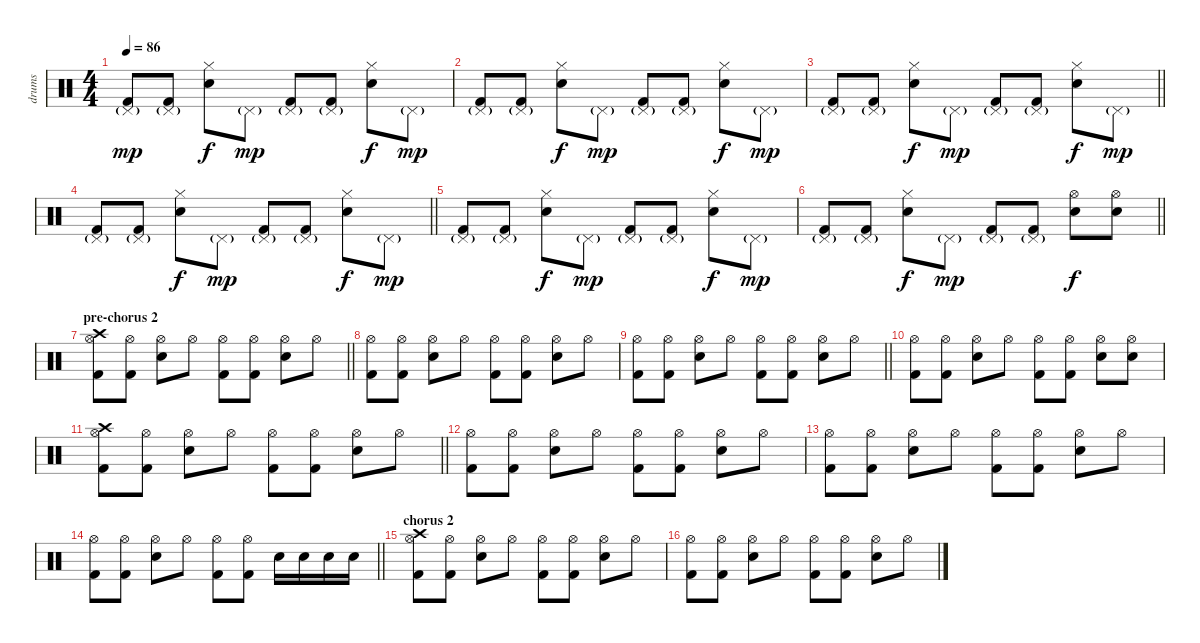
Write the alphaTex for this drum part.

\track ("drums" "drums") {instrument percussion}
\staff {score}
\articulation defaults
\ts (4 4)
\tempo 86
\clef neutral
\ks c
("Kick (hit) 2" "Pedal Hi-Hat (hit)"{g}).8{dy mp} ("Kick (hit) 2" "Pedal Hi-Hat (hit)"{g}).8 ("Electric Snare (hit)" "Hi-Hat (closed)").8{dy f} "Pedal Hi-Hat (hit)"{g}.8{dy mp} ("Kick (hit) 2" "Pedal Hi-Hat (hit)"{g}).8 ("Kick (hit) 2" "Pedal Hi-Hat (hit)"{g}).8 ("Electric Snare (hit)" "Hi-Hat (closed)").8{dy f} "Pedal Hi-Hat (hit)"{g}.8{dy mp} |
("Kick (hit) 2" "Pedal Hi-Hat (hit)"{g}).8 ("Kick (hit) 2" "Pedal Hi-Hat (hit)"{g}).8 ("Electric Snare (hit)" "Hi-Hat (closed)").8{dy f} "Pedal Hi-Hat (hit)"{g}.8{dy mp} ("Kick (hit) 2" "Pedal Hi-Hat (hit)"{g}).8 ("Kick (hit) 2" "Pedal Hi-Hat (hit)"{g}).8 ("Electric Snare (hit)" "Hi-Hat (closed)").8{dy f} "Pedal Hi-Hat (hit)"{g}.8{dy mp} |
\barLineRight lightlight
("Kick (hit) 2" "Pedal Hi-Hat (hit)"{g}).8 ("Kick (hit) 2" "Pedal Hi-Hat (hit)"{g}).8 ("Electric Snare (hit)" "Hi-Hat (closed)").8{dy f} "Pedal Hi-Hat (hit)"{g}.8{dy mp} ("Kick (hit) 2" "Pedal Hi-Hat (hit)"{g}).8 ("Kick (hit) 2" "Pedal Hi-Hat (hit)"{g}).8 ("Electric Snare (hit)" "Hi-Hat (closed)").8{dy f} "Pedal Hi-Hat (hit)"{g}.8{dy mp} |
\barLineRight lightlight
("Kick (hit) 2" "Pedal Hi-Hat (hit)"{g}).8 ("Kick (hit) 2" "Pedal Hi-Hat (hit)"{g}).8 ("Electric Snare (hit)" "Hi-Hat (closed)").8{dy f} "Pedal Hi-Hat (hit)"{g}.8{dy mp} ("Kick (hit) 2" "Pedal Hi-Hat (hit)"{g}).8 ("Kick (hit) 2" "Pedal Hi-Hat (hit)"{g}).8 ("Electric Snare (hit)" "Hi-Hat (closed)").8{dy f} "Pedal Hi-Hat (hit)"{g}.8{dy mp} |
("Kick (hit) 2" "Pedal Hi-Hat (hit)"{g}).8 ("Kick (hit) 2" "Pedal Hi-Hat (hit)"{g}).8 ("Electric Snare (hit)" "Hi-Hat (closed)").8{dy f} "Pedal Hi-Hat (hit)"{g}.8{dy mp} ("Kick (hit) 2" "Pedal Hi-Hat (hit)"{g}).8 ("Kick (hit) 2" "Pedal Hi-Hat (hit)"{g}).8 ("Electric Snare (hit)" "Hi-Hat (closed)").8{dy f} "Pedal Hi-Hat (hit)"{g}.8{dy mp} |
\barLineRight lightlight
("Kick (hit) 2" "Pedal Hi-Hat (hit)"{g}).8 ("Kick (hit) 2" "Pedal Hi-Hat (hit)"{g}).8 ("Electric Snare (hit)" "Hi-Hat (closed)").8{dy f} "Pedal Hi-Hat (hit)"{g}.8{dy mp} ("Kick (hit) 2" "Pedal Hi-Hat (hit)"{g}).8 ("Kick (hit) 2" "Pedal Hi-Hat (hit)"{g}).8 ("Electric Snare (hit)" "Hi-Hat (open)").8{dy f} ("Electric Snare (hit)" "Hi-Hat (open)").8 |
\section ("" "pre-chorus 2")
\barLineRight lightlight
("Kick (hit) 2" "Hi-Hat (open)" "Crash high (hit)").8 ("Kick (hit) 2" "Hi-Hat (open)").8 ("Electric Snare (hit)" "Hi-Hat (open)").8 "Hi-Hat (open)".8 ("Kick (hit) 2" "Hi-Hat (open)").8 ("Kick (hit) 2" "Hi-Hat (open)").8 ("Electric Snare (hit)" "Hi-Hat (open)").8 "Hi-Hat (open)".8 |
("Kick (hit) 2" "Hi-Hat (open)").8 ("Kick (hit) 2" "Hi-Hat (open)").8 ("Electric Snare (hit)" "Hi-Hat (open)").8 "Hi-Hat (open)".8 ("Kick (hit) 2" "Hi-Hat (open)").8 ("Kick (hit) 2" "Hi-Hat (open)").8 ("Electric Snare (hit)" "Hi-Hat (open)").8 "Hi-Hat (open)".8 |
\barLineRight lightlight
("Kick (hit) 2" "Hi-Hat (open)").8 ("Kick (hit) 2" "Hi-Hat (open)").8 ("Electric Snare (hit)" "Hi-Hat (open)").8 "Hi-Hat (open)".8 ("Kick (hit) 2" "Hi-Hat (open)").8 ("Kick (hit) 2" "Hi-Hat (open)").8 ("Electric Snare (hit)" "Hi-Hat (open)").8 "Hi-Hat (open)".8 |
("Kick (hit) 2" "Hi-Hat (open)").8 ("Kick (hit) 2" "Hi-Hat (open)").8 ("Electric Snare (hit)" "Hi-Hat (open)").8 "Hi-Hat (open)".8 ("Kick (hit) 2" "Hi-Hat (open)").8 ("Kick (hit) 2" "Hi-Hat (open)").8 ("Electric Snare (hit)" "Hi-Hat (open)").8 ("Electric Snare (hit)" "Hi-Hat (open)").8 |
\barLineRight lightlight
("Kick (hit) 2" "Hi-Hat (open)" "Crash high (hit)").8 ("Kick (hit) 2" "Hi-Hat (open)").8 ("Electric Snare (hit)" "Hi-Hat (open)").8 "Hi-Hat (open)".8 ("Kick (hit) 2" "Hi-Hat (open)").8 ("Kick (hit) 2" "Hi-Hat (open)").8 ("Electric Snare (hit)" "Hi-Hat (open)").8 "Hi-Hat (open)".8 |
("Kick (hit) 2" "Hi-Hat (open)").8 ("Kick (hit) 2" "Hi-Hat (open)").8 ("Electric Snare (hit)" "Hi-Hat (open)").8 "Hi-Hat (open)".8 ("Kick (hit) 2" "Hi-Hat (open)").8 ("Kick (hit) 2" "Hi-Hat (open)").8 ("Electric Snare (hit)" "Hi-Hat (open)").8 "Hi-Hat (open)".8 |
("Kick (hit) 2" "Hi-Hat (open)").8 ("Kick (hit) 2" "Hi-Hat (open)").8 ("Electric Snare (hit)" "Hi-Hat (open)").8 "Hi-Hat (open)".8 ("Kick (hit) 2" "Hi-Hat (open)").8 ("Kick (hit) 2" "Hi-Hat (open)").8 ("Electric Snare (hit)" "Hi-Hat (open)").8 "Hi-Hat (open)".8 |
\barLineRight lightlight
("Kick (hit) 2" "Hi-Hat (open)").8 ("Kick (hit) 2" "Hi-Hat (open)").8 ("Electric Snare (hit)" "Hi-Hat (open)").8 "Hi-Hat (open)".8 ("Kick (hit) 2" "Hi-Hat (open)").8 ("Kick (hit) 2" "Hi-Hat (open)").8 "Electric Snare (hit)".16 "Electric Snare (hit)".16 "Electric Snare (hit)".16 "Electric Snare (hit)".16 |
\section ("" "chorus 2")
("Kick (hit) 2" "Hi-Hat (open)" "Crash high (hit)").8 ("Kick (hit) 2" "Hi-Hat (open)").8 ("Electric Snare (hit)" "Hi-Hat (open)").8 "Hi-Hat (open)".8 ("Kick (hit) 2" "Hi-Hat (open)").8 ("Kick (hit) 2" "Hi-Hat (open)").8 ("Electric Snare (hit)" "Hi-Hat (open)").8 "Hi-Hat (open)".8 |
("Kick (hit) 2" "Hi-Hat (open)").8 ("Kick (hit) 2" "Hi-Hat (open)").8 ("Electric Snare (hit)" "Hi-Hat (open)").8 "Hi-Hat (open)".8 ("Kick (hit) 2" "Hi-Hat (open)").8 ("Kick (hit) 2" "Hi-Hat (open)").8 ("Electric Snare (hit)" "Hi-Hat (open)").8 "Hi-Hat (open)".8
